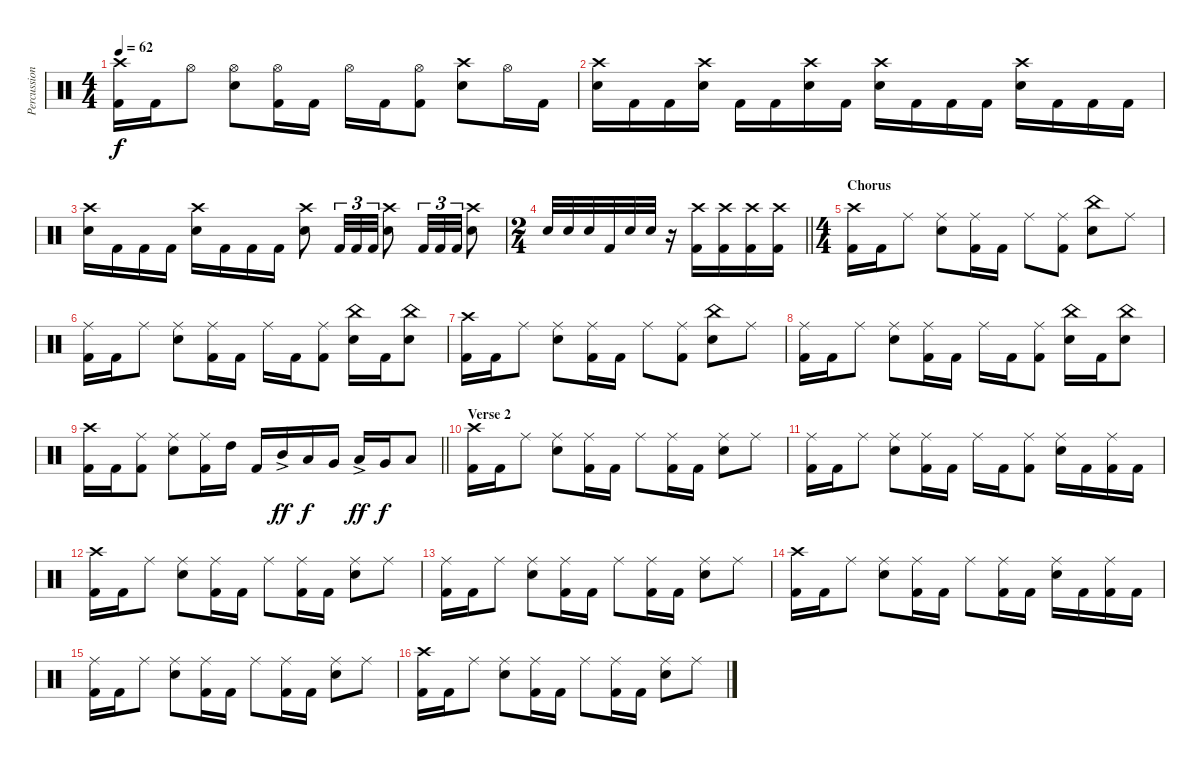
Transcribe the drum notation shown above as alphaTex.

\track ("Percussion" "Percussion") {instrument percussion}
\staff {score}
\articulation defaults
\ts (4 4)
\tempo 62
\clef neutral
\ks c
("Crash high (hit)" "Kick (hit) 2").16{dy f} "Kick (hit) 2".16 "Hi-Hat (open)".8 ("Hi-Hat (open)" "Snare (hit) 2").8 ("Hi-Hat (open)" "Kick (hit) 2").16 "Kick (hit) 2".16 "Hi-Hat (open)".16 "Kick (hit) 2".16 ("Hi-Hat (open)" "Kick (hit) 2").8 ("Crash high (hit)" "Snare (hit) 2").8 "Hi-Hat (open)".16 "Kick (hit) 2".16 |
("Crash high (hit)" "Snare (hit) 2").16 "Kick (hit) 2".16 "Kick (hit) 2".16 ("Crash high (hit)" "Snare (hit) 2").16 "Kick (hit) 2".16 "Kick (hit) 2".16 ("Crash high (hit)" "Snare (hit) 2").16 "Kick (hit) 2".16 ("Crash high (hit)" "Snare (hit) 2").16 "Kick (hit) 2".16 "Kick (hit) 2".16 "Kick (hit) 2".16 ("Crash high (hit)" "Snare (hit) 2").16 "Kick (hit) 2".16 "Kick (hit) 2".16 "Kick (hit) 2".16 |
("Crash high (hit)" "Snare (hit) 2").16 "Kick (hit) 2".16 "Kick (hit) 2".16 "Kick (hit) 2".16 ("Crash high (hit)" "Snare (hit) 2").16 "Kick (hit) 2".16 "Kick (hit) 2".16 "Kick (hit) 2".16 ("Crash high (hit)" "Snare (hit) 2").8 "Kick (hit) 2".32{tu (3 2)} "Kick (hit) 2".32{tu (3 2)} "Kick (hit) 2".32{tu (3 2)} ("Crash high (hit)" "Snare (hit) 2").8 "Kick (hit) 2".32{tu (3 2)} "Kick (hit) 2".32{tu (3 2)} "Kick (hit) 2".32{tu (3 2)} ("Crash high (hit)" "Snare (hit) 2").8 |
\ts (2 4)
\barLineRight lightlight "Snare (hit) 2".32 "Snare (hit) 2".32 "Snare (hit) 2".32 "Kick (hit) 2".32 "Snare (hit) 2".32 "Snare (hit) 2".32
r.16 ("Crash high (hit)" "Kick (hit) 2").16 ("Crash high (hit)" "Kick (hit) 2").16 ("Crash high (hit)" "Kick (hit) 2").16 ("Crash high (hit)" "Kick (hit) 2").16 |
\ts (4 4)
\section ("" "Chorus")
("Crash high (hit)" "Kick (hit) 2").16 "Kick (hit) 2".16 "Ride (middle)".8 ("Ride (middle)" "Snare (hit) 2").8 ("Ride (middle)" "Kick (hit) 2").16 "Kick (hit) 2".16 "Ride (middle)".8 ("Ride (middle)" "Kick (hit) 2").8 ("China (hit)" "Snare (hit) 2").8 "Ride (middle)".8 |
("Ride (middle)" "Kick (hit) 2").16 "Kick (hit) 2".16 "Ride (middle)".8 ("Ride (middle)" "Snare (hit) 2").8 ("Ride (middle)" "Kick (hit) 2").16 "Kick (hit) 2".16 "Ride (middle)".16 "Kick (hit) 2".16 ("Ride (middle)" "Kick (hit) 2").8 ("China (hit)" "Snare (hit) 2").16 "Kick (hit) 2".16 ("China (hit)" "Snare (hit) 2").8 |
("Crash high (hit)" "Kick (hit) 2").16 "Kick (hit) 2".16 "Ride (middle)".8 ("Ride (middle)" "Snare (hit) 2").8 ("Ride (middle)" "Kick (hit) 2").16 "Kick (hit) 2".16 "Ride (middle)".8 ("Ride (middle)" "Kick (hit) 2").8 ("China (hit)" "Snare (hit) 2").8 "Ride (middle)".8 |
("Ride (middle)" "Kick (hit) 2").16 "Kick (hit) 2".16 "Ride (middle)".8 ("Ride (middle)" "Snare (hit) 2").8 ("Ride (middle)" "Kick (hit) 2").16 "Kick (hit) 2".16 "Ride (middle)".16 "Kick (hit) 2".16 ("Ride (middle)" "Kick (hit) 2").8 ("China (hit)" "Snare (hit) 2").16 "Kick (hit) 2".16 ("China (hit)" "Snare (hit) 2").8 |
\barLineRight lightlight
("Crash high (hit)" "Kick (hit) 2").16 "Kick (hit) 2".16 ("Ride (middle)" "Kick (hit) 2").8 ("Ride (middle)" "Snare (hit) 2").8 ("Ride (middle)" "Kick (hit) 2").16 "High Tom (hit)".16 "Kick (hit) 2".16 "Mid Tom (hit)"{ac}.16{dy ff} "Low Tom (hit)".16{dy f} "Very Low Tom (hit)".16 "Low Tom (hit)"{ac}.16{dy ff} "Very Low Tom (hit)".16{dy f} "Low Floor Tom (hit)".8 |
\section ("" "Verse 2")
("Crash high (hit)" "Kick (hit) 2").16 "Kick (hit) 2".16 "Ride (middle)".8 ("Ride (middle)" "Snare (hit) 2").8 ("Ride (middle)" "Kick (hit) 2").16 "Kick (hit) 2".16 "Ride (middle)".8 ("Ride (middle)" "Kick (hit) 2").16 "Kick (hit) 2".16 ("Ride (middle)" "Snare (hit) 2").8 "Ride (middle)".8 |
("Ride (middle)" "Kick (hit) 2").16 "Kick (hit) 2".16 "Ride (middle)".8 ("Ride (middle)" "Snare (hit) 2").8 ("Ride (middle)" "Kick (hit) 2").16 "Kick (hit) 2".16 "Ride (middle)".16 "Kick (hit) 2".16 ("Ride (middle)" "Kick (hit) 2").8 ("Ride (middle)" "Snare (hit) 2").16 "Kick (hit) 2".16 ("Ride (middle)" "Kick (hit) 2").16 "Kick (hit) 2".16 |
("Crash high (hit)" "Kick (hit) 2").16 "Kick (hit) 2".16 "Ride (middle)".8 ("Ride (middle)" "Snare (hit) 2").8 ("Ride (middle)" "Kick (hit) 2").16 "Kick (hit) 2".16 "Ride (middle)".8 ("Ride (middle)" "Kick (hit) 2").16 "Kick (hit) 2".16 ("Ride (middle)" "Snare (hit) 2").8 "Ride (middle)".8 |
("Ride (middle)" "Kick (hit) 2").16 "Kick (hit) 2".16 "Ride (middle)".8 ("Ride (middle)" "Snare (hit) 2").8 ("Ride (middle)" "Kick (hit) 2").16 "Kick (hit) 2".16 "Ride (middle)".8 ("Ride (middle)" "Kick (hit) 2").16 "Kick (hit) 2".16 ("Ride (middle)" "Snare (hit) 2").8 "Ride (middle)".8 |
("Crash high (hit)" "Kick (hit) 2").16 "Kick (hit) 2".16 "Ride (middle)".8 ("Ride (middle)" "Snare (hit) 2").8 ("Ride (middle)" "Kick (hit) 2").16 "Kick (hit) 2".16 "Ride (middle)".8 ("Ride (middle)" "Kick (hit) 2").16 "Kick (hit) 2".16 ("Ride (middle)" "Snare (hit) 2").16 "Kick (hit) 2".16 ("Ride (middle)" "Kick (hit) 2").16 "Kick (hit) 2".16 |
("Ride (middle)" "Kick (hit) 2").16 "Kick (hit) 2".16 "Ride (middle)".8 ("Ride (middle)" "Snare (hit) 2").8 ("Ride (middle)" "Kick (hit) 2").16 "Kick (hit) 2".16 "Ride (middle)".8 ("Ride (middle)" "Kick (hit) 2").16 "Kick (hit) 2".16 ("Ride (middle)" "Snare (hit) 2").8 "Ride (middle)".8 |
("Crash high (hit)" "Kick (hit) 2").16 "Kick (hit) 2".16 "Ride (middle)".8 ("Ride (middle)" "Snare (hit) 2").8 ("Ride (middle)" "Kick (hit) 2").16 "Kick (hit) 2".16 "Ride (middle)".8 ("Ride (middle)" "Kick (hit) 2").16 "Kick (hit) 2".16 ("Ride (middle)" "Snare (hit) 2").8 "Ride (middle)".8
